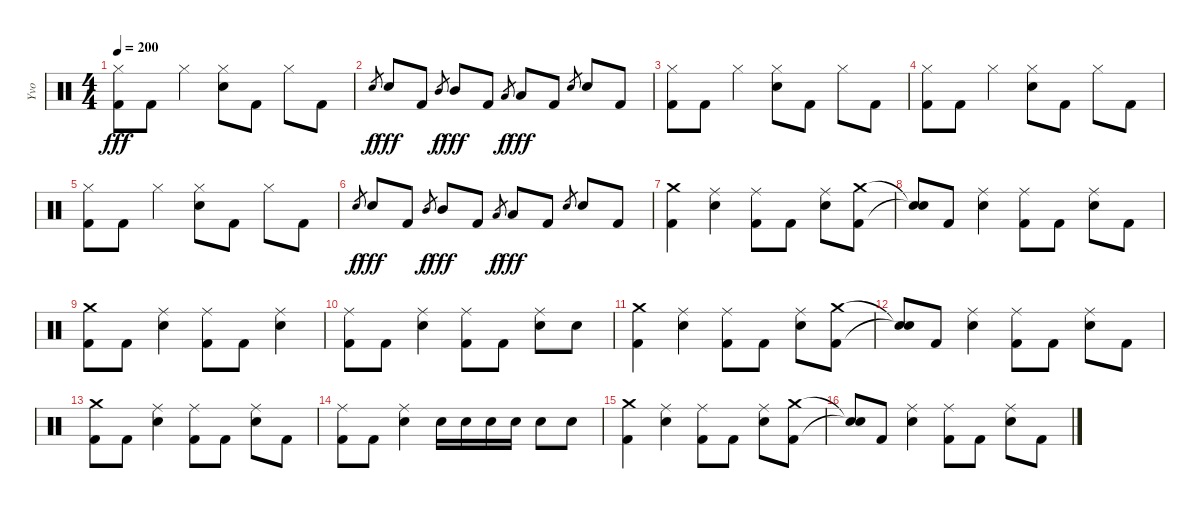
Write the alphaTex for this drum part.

\track ("Yvo" "Yvo") {instrument percussion}
\staff {score}
\articulation defaults
\ts (4 4)
\tempo 200
\clef neutral
\ks c
("Hi-Hat (closed)" "Kick (hit) 2").8{dy fff} "Kick (hit) 2".8 "Hi-Hat (closed)".4 ("Hi-Hat (closed)" "Electric Snare (hit)").8 "Kick (hit) 2".8 "Hi-Hat (closed)".8 "Kick (hit) 2".8 |
"Electric Snare (hit)".8{gr dy f} "Electric Snare (hit)".8{dy fff} "Kick (hit) 2".8 "Mid Tom (hit)".8{gr dy f} "Mid Tom (hit)".8{dy fff} "Kick (hit) 2".8 "Low Tom (hit)".8{gr dy f} "Low Tom (hit)".8{dy fff} "Kick (hit) 2".8 "Electric Snare (hit)".8{gr} "Electric Snare (hit)".8 "Kick (hit) 2".8 |
("Hi-Hat (closed)" "Kick (hit) 2").8 "Kick (hit) 2".8 "Hi-Hat (closed)".4 ("Hi-Hat (closed)" "Electric Snare (hit)").8 "Kick (hit) 2".8 "Hi-Hat (closed)".8 "Kick (hit) 2".8 |
("Hi-Hat (closed)" "Kick (hit) 2").8 "Kick (hit) 2".8 "Hi-Hat (closed)".4 ("Hi-Hat (closed)" "Electric Snare (hit)").8 "Kick (hit) 2".8 "Hi-Hat (closed)".8 "Kick (hit) 2".8 |
("Hi-Hat (closed)" "Kick (hit) 2").8 "Kick (hit) 2".8 "Hi-Hat (closed)".4 ("Hi-Hat (closed)" "Electric Snare (hit)").8 "Kick (hit) 2".8 "Hi-Hat (closed)".8 "Kick (hit) 2".8 |
"Electric Snare (hit)".8{gr dy f} "Electric Snare (hit)".8{dy fff} "Kick (hit) 2".8 "Mid Tom (hit)".8{gr dy f} "Mid Tom (hit)".8{dy fff} "Kick (hit) 2".8 "Low Tom (hit)".8{gr dy f} "Low Tom (hit)".8{dy fff} "Kick (hit) 2".8 "Electric Snare (hit)".8{gr} "Electric Snare (hit)".8 "Kick (hit) 2".8 |
("Crash medium (hit)" "Kick (hit) 2").4 ("Ride (middle)" "Electric Snare (hit)").4 ("Ride (middle)" "Kick (hit) 2").8 "Kick (hit) 2".8 ("Ride (middle)" "Electric Snare (hit)").8 ("Crash medium (hit)" "Kick (hit) 2").8 |
("Snare (hit)"{t} "Snare (hit)"{t}).8 "Kick (hit) 2".8 ("Ride (middle)" "Electric Snare (hit)").4 ("Ride (middle)" "Kick (hit) 2").8 "Kick (hit) 2".8 ("Ride (middle)" "Electric Snare (hit)").8 "Kick (hit) 2".8 |
("Crash medium (hit)" "Kick (hit) 2").8 "Kick (hit) 2".8 ("Ride (middle)" "Electric Snare (hit)").4 ("Ride (middle)" "Kick (hit) 2").8 "Kick (hit) 2".8 ("Ride (middle)" "Electric Snare (hit)").4 |
("Ride (middle)" "Kick (hit) 2").8 "Kick (hit) 2".8 ("Ride (middle)" "Electric Snare (hit)").4 ("Ride (middle)" "Kick (hit) 2").8 "Kick (hit) 2".8 ("Ride (middle)" "Electric Snare (hit)").8 "Electric Snare (hit)".8 |
("Crash medium (hit)" "Kick (hit) 2").4 ("Ride (middle)" "Electric Snare (hit)").4 ("Ride (middle)" "Kick (hit) 2").8 "Kick (hit) 2".8 ("Ride (middle)" "Electric Snare (hit)").8 ("Crash medium (hit)" "Kick (hit) 2").8 |
("Snare (hit)"{t} "Snare (hit)"{t}).8 "Kick (hit) 2".8 ("Ride (middle)" "Electric Snare (hit)").4 ("Ride (middle)" "Kick (hit) 2").8 "Kick (hit) 2".8 ("Ride (middle)" "Electric Snare (hit)").8 "Kick (hit) 2".8 |
("Crash medium (hit)" "Kick (hit) 2").8 "Kick (hit) 2".8 ("Ride (middle)" "Electric Snare (hit)").4 ("Ride (middle)" "Kick (hit) 2").8 "Kick (hit) 2".8 ("Ride (middle)" "Electric Snare (hit)").8 "Kick (hit) 2".8 |
("Ride (middle)" "Kick (hit) 2").8 "Kick (hit) 2".8 ("Ride (middle)" "Electric Snare (hit)").4 "Electric Snare (hit)".16 "Electric Snare (hit)".16 "Electric Snare (hit)".16 "Electric Snare (hit)".16 "Electric Snare (hit)".8 "Electric Snare (hit)".8 |
("Crash medium (hit)" "Kick (hit) 2").4 ("Ride (middle)" "Electric Snare (hit)").4 ("Ride (middle)" "Kick (hit) 2").8 "Kick (hit) 2".8 ("Ride (middle)" "Electric Snare (hit)").8 ("Crash medium (hit)" "Kick (hit) 2").8 |
("Snare (hit)"{t} "Snare (hit)"{t}).8 "Kick (hit) 2".8 ("Ride (middle)" "Electric Snare (hit)").4 ("Ride (middle)" "Kick (hit) 2").8 "Kick (hit) 2".8 ("Ride (middle)" "Electric Snare (hit)").8 "Kick (hit) 2".8
